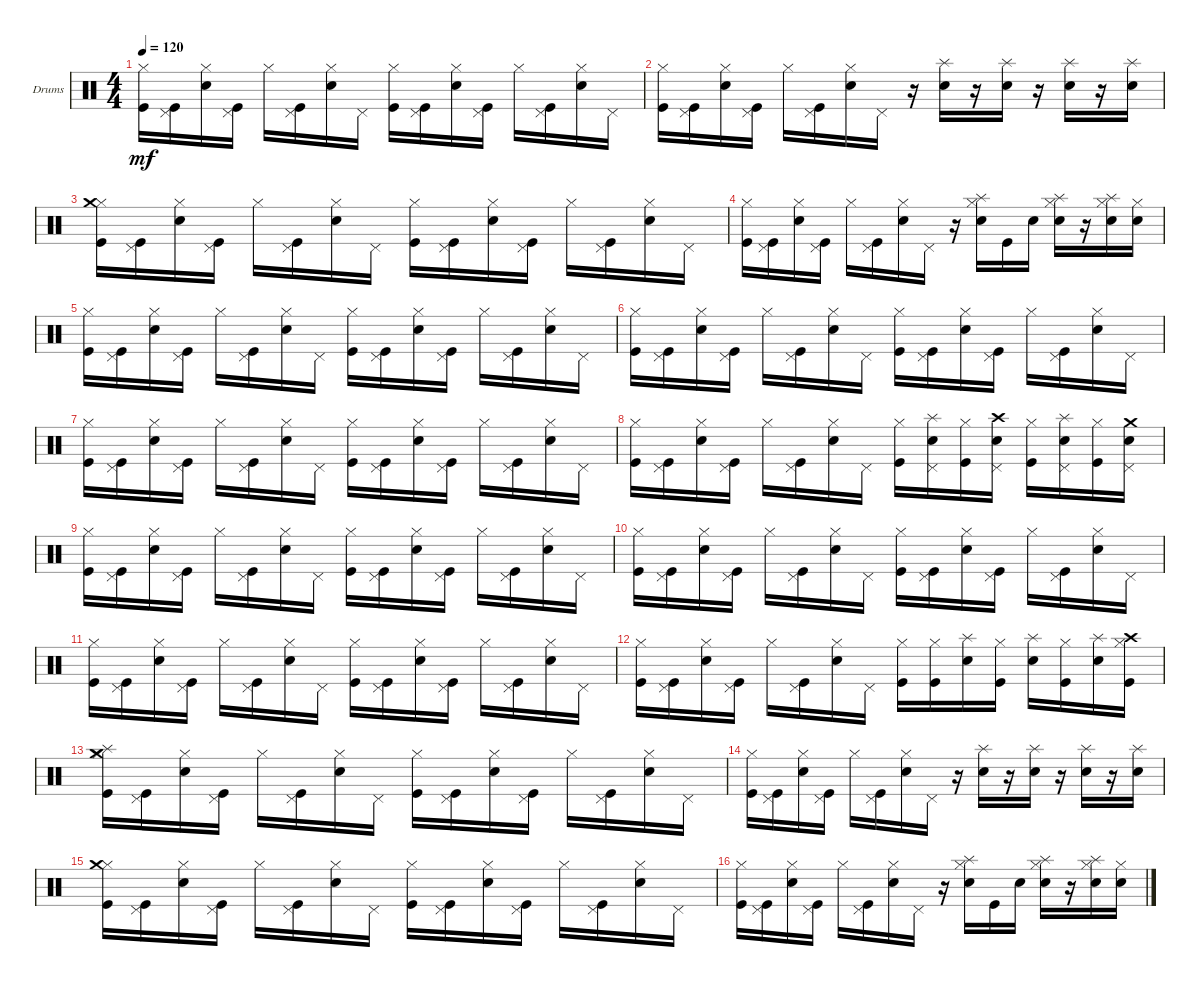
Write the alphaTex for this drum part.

\defaultSystemsLayout 4
\bracketExtendMode groupsimilarinstruments
\firstSystemTrackNameOrientation horizontal
\otherSystemsTrackNameOrientation horizontal
\track ("Drumkit" "Drums") {instrument percussion}
\staff {score}
\articulation defaults
\ts (4 4)
\tempo 120
\clef neutral
\scale
0.474178
\ks c
("Hi-Hat (closed)" "Kick (hit)").16{dy mf} ("Pedal Hi-Hat (hit)" "Kick (hit)").16 ("Hi-Hat (closed)" "Snare (hit) 2").16 ("Pedal Hi-Hat (hit)" "Kick (hit)").16 "Hi-Hat (closed)".16 ("Pedal Hi-Hat (hit)" "Kick (hit)").16 ("Hi-Hat (closed)" "Snare (hit) 2").16 "Pedal Hi-Hat (hit)".16 ("Kick (hit)" "Hi-Hat (closed)").16 ("Kick (hit)" "Pedal Hi-Hat (hit)").16 ("Snare (hit) 2" "Hi-Hat (closed)").16 ("Kick (hit)" "Pedal Hi-Hat (hit)").16 "Hi-Hat (closed)".16 ("Kick (hit)" "Pedal Hi-Hat (hit)").16 ("Snare (hit) 2" "Hi-Hat (closed)").16 "Pedal Hi-Hat (hit)".16 |
\scale
0.262911 ("Hi-Hat (closed)" "Kick (hit)").16 ("Pedal Hi-Hat (hit)" "Kick (hit)").16 ("Hi-Hat (closed)" "Snare (hit) 2").16 ("Pedal Hi-Hat (hit)" "Kick (hit)").16 "Hi-Hat (closed)".16 ("Pedal Hi-Hat (hit)" "Kick (hit)").16 ("Hi-Hat (closed)" "Snare (hit) 2").16 "Pedal Hi-Hat (hit)".16 r.16 ("Splash (hit)" "Snare (hit) 2").16 r.16 ("Splash (hit)" "Snare (hit) 2").16 r.16 ("Splash (hit)" "Snare (hit) 2").16 r.16 ("Splash (hit)" "Snare (hit) 2").16 |
\scale
0.262911 ("Hi-Hat (closed)" "Kick (hit)" "Crash medium (hit)").16 ("Pedal Hi-Hat (hit)" "Kick (hit)").16 ("Hi-Hat (closed)" "Snare (hit) 2").16 ("Pedal Hi-Hat (hit)" "Kick (hit)").16 "Hi-Hat (closed)".16 ("Pedal Hi-Hat (hit)" "Kick (hit)").16 ("Hi-Hat (closed)" "Snare (hit) 2").16 "Pedal Hi-Hat (hit)".16 ("Kick (hit)" "Hi-Hat (closed)").16 ("Kick (hit)" "Pedal Hi-Hat (hit)").16 ("Snare (hit) 2" "Hi-Hat (closed)").16 ("Kick (hit)" "Pedal Hi-Hat (hit)").16 "Hi-Hat (closed)".16 ("Kick (hit)" "Pedal Hi-Hat (hit)").16 ("Snare (hit) 2" "Hi-Hat (closed)").16 "Pedal Hi-Hat (hit)".16 |
\scale
0.333333 ("Hi-Hat (closed)" "Kick (hit)").16 ("Pedal Hi-Hat (hit)" "Kick (hit)").16 ("Hi-Hat (closed)" "Snare (hit) 2").16 ("Pedal Hi-Hat (hit)" "Kick (hit)").16 "Hi-Hat (closed)".16 ("Pedal Hi-Hat (hit)" "Kick (hit)").16 ("Hi-Hat (closed)" "Snare (hit) 2").16 "Pedal Hi-Hat (hit)".16 r.16 ("Splash (hit)" "Hi-Hat (closed)" "Snare (hit) 2").16 "Kick (hit)".16 "Snare (hit) 2".16 ("Splash (hit)" "Hi-Hat (closed)" "Snare (hit) 2").16 r.16 ("Splash (hit)" "Snare (hit) 2" "Hi-Hat (closed)").16 ("Hi-Hat (closed)" "Snare (hit) 2").16 |
\scale
0.333333 ("Hi-Hat (closed)" "Kick (hit)").16 ("Pedal Hi-Hat (hit)" "Kick (hit)").16 ("Snare (hit) 2" "Hi-Hat (closed)").16 ("Pedal Hi-Hat (hit)" "Kick (hit)").16 "Hi-Hat (closed)".16 ("Pedal Hi-Hat (hit)" "Kick (hit)").16 ("Hi-Hat (closed)" "Snare (hit) 2").16 "Pedal Hi-Hat (hit)".16 ("Hi-Hat (closed)" "Kick (hit)").16 ("Pedal Hi-Hat (hit)" "Kick (hit)").16 ("Snare (hit) 2" "Hi-Hat (closed)").16 ("Pedal Hi-Hat (hit)" "Kick (hit)").16 "Hi-Hat (closed)".16 ("Pedal Hi-Hat (hit)" "Kick (hit)").16 ("Hi-Hat (closed)" "Snare (hit) 2").16 "Pedal Hi-Hat (hit)".16 |
\scale
0.333333 ("Hi-Hat (closed)" "Kick (hit)").16 ("Pedal Hi-Hat (hit)" "Kick (hit)").16 ("Snare (hit) 2" "Hi-Hat (closed)").16 ("Pedal Hi-Hat (hit)" "Kick (hit)").16 "Hi-Hat (closed)".16 ("Pedal Hi-Hat (hit)" "Kick (hit)").16 ("Hi-Hat (closed)" "Snare (hit) 2").16 "Pedal Hi-Hat (hit)".16 ("Hi-Hat (closed)" "Kick (hit)").16 ("Pedal Hi-Hat (hit)" "Kick (hit)").16 ("Snare (hit) 2" "Hi-Hat (closed)").16 ("Pedal Hi-Hat (hit)" "Kick (hit)").16 "Hi-Hat (closed)".16 ("Pedal Hi-Hat (hit)" "Kick (hit)").16 ("Hi-Hat (closed)" "Snare (hit) 2").16 "Pedal Hi-Hat (hit)".16 |
\scale
0.333333 ("Hi-Hat (closed)" "Kick (hit)").16 ("Pedal Hi-Hat (hit)" "Kick (hit)").16 ("Snare (hit) 2" "Hi-Hat (closed)").16 ("Pedal Hi-Hat (hit)" "Kick (hit)").16 "Hi-Hat (closed)".16 ("Pedal Hi-Hat (hit)" "Kick (hit)").16 ("Hi-Hat (closed)" "Snare (hit) 2").16 "Pedal Hi-Hat (hit)".16 ("Hi-Hat (closed)" "Kick (hit)").16 ("Pedal Hi-Hat (hit)" "Kick (hit)").16 ("Snare (hit) 2" "Hi-Hat (closed)").16 ("Pedal Hi-Hat (hit)" "Kick (hit)").16 "Hi-Hat (closed)".16 ("Pedal Hi-Hat (hit)" "Kick (hit)").16 ("Hi-Hat (closed)" "Snare (hit) 2").16 "Pedal Hi-Hat (hit)".16 |
\scale
0.333333 ("Hi-Hat (closed)" "Kick (hit)").16 ("Pedal Hi-Hat (hit)" "Kick (hit)").16 ("Snare (hit) 2" "Hi-Hat (closed)").16 ("Pedal Hi-Hat (hit)" "Kick (hit)").16 "Hi-Hat (closed)".16 ("Pedal Hi-Hat (hit)" "Kick (hit)").16 ("Hi-Hat (closed)" "Snare (hit) 2").16 "Pedal Hi-Hat (hit)".16 ("Hi-Hat (closed)" "Kick (hit)").16 ("Pedal Hi-Hat (hit)" "Splash (hit)" "Snare (hit) 2").16 ("Kick (hit)" "Hi-Hat (closed)").16 ("Pedal Hi-Hat (hit)" "Snare (hit) 2" "Crash high (hit)").16 ("Hi-Hat (closed)" "Kick (hit)").16 ("Pedal Hi-Hat (hit)" "Snare (hit) 2" "Splash (hit)").16 ("Kick (hit)" "Hi-Hat (closed)").16 ("Snare (hit) 2" "Pedal Hi-Hat (hit)" "Crash medium (hit)").16 |
\scale
0.333333 ("Hi-Hat (closed)" "Kick (hit)").16 ("Pedal Hi-Hat (hit)" "Kick (hit)").16 ("Snare (hit) 2" "Hi-Hat (closed)").16 ("Pedal Hi-Hat (hit)" "Kick (hit)").16 "Hi-Hat (closed)".16 ("Pedal Hi-Hat (hit)" "Kick (hit)").16 ("Hi-Hat (closed)" "Snare (hit) 2").16 "Pedal Hi-Hat (hit)".16 ("Hi-Hat (closed)" "Kick (hit)").16 ("Pedal Hi-Hat (hit)" "Kick (hit)").16 ("Snare (hit) 2" "Hi-Hat (closed)").16 ("Pedal Hi-Hat (hit)" "Kick (hit)").16 "Hi-Hat (closed)".16 ("Pedal Hi-Hat (hit)" "Kick (hit)").16 ("Hi-Hat (closed)" "Snare (hit) 2").16 "Pedal Hi-Hat (hit)".16 |
\scale
0.333333 ("Hi-Hat (closed)" "Kick (hit)").16 ("Pedal Hi-Hat (hit)" "Kick (hit)").16 ("Snare (hit) 2" "Hi-Hat (closed)").16 ("Pedal Hi-Hat (hit)" "Kick (hit)").16 "Hi-Hat (closed)".16 ("Pedal Hi-Hat (hit)" "Kick (hit)").16 ("Hi-Hat (closed)" "Snare (hit) 2").16 "Pedal Hi-Hat (hit)".16 ("Hi-Hat (closed)" "Kick (hit)").16 ("Pedal Hi-Hat (hit)" "Kick (hit)").16 ("Snare (hit) 2" "Hi-Hat (closed)").16 ("Pedal Hi-Hat (hit)" "Kick (hit)").16 "Hi-Hat (closed)".16 ("Pedal Hi-Hat (hit)" "Kick (hit)").16 ("Hi-Hat (closed)" "Snare (hit) 2").16 "Pedal Hi-Hat (hit)".16 |
\scale
0.333333 ("Hi-Hat (closed)" "Kick (hit)").16 ("Pedal Hi-Hat (hit)" "Kick (hit)").16 ("Snare (hit) 2" "Hi-Hat (closed)").16 ("Pedal Hi-Hat (hit)" "Kick (hit)").16 "Hi-Hat (closed)".16 ("Pedal Hi-Hat (hit)" "Kick (hit)").16 ("Hi-Hat (closed)" "Snare (hit) 2").16 "Pedal Hi-Hat (hit)".16 ("Hi-Hat (closed)" "Kick (hit)").16 ("Pedal Hi-Hat (hit)" "Kick (hit)").16 ("Snare (hit) 2" "Hi-Hat (closed)").16 ("Pedal Hi-Hat (hit)" "Kick (hit)").16 "Hi-Hat (closed)".16 ("Pedal Hi-Hat (hit)" "Kick (hit)").16 ("Hi-Hat (closed)" "Snare (hit) 2").16 "Pedal Hi-Hat (hit)".16 |
\scale
0.333333 ("Hi-Hat (closed)" "Kick (hit)").16 ("Pedal Hi-Hat (hit)" "Kick (hit)").16 ("Snare (hit) 2" "Hi-Hat (closed)").16 ("Pedal Hi-Hat (hit)" "Kick (hit)").16 "Hi-Hat (closed)".16 ("Pedal Hi-Hat (hit)" "Kick (hit)").16 ("Hi-Hat (closed)" "Snare (hit) 2").16 "Pedal Hi-Hat (hit)".16 ("Hi-Hat (closed)" "Kick (hit)").16 ("Hi-Hat (closed)" "Kick (hit)").16 ("Splash (hit)" "Snare (hit) 2").16 ("Hi-Hat (closed)" "Kick (hit)").16 ("Splash (hit)" "Snare (hit) 2").16 ("Hi-Hat (closed)" "Kick (hit)").16 ("Splash (hit)" "Snare (hit) 2").16 ("Hi-Hat (closed)" "Crash high (hit)" "Kick (hit)").16 |
\scale
0.333333 ("Splash (hit)" "Crash medium (hit)" "Hi-Hat (closed)" "Kick (hit)").16 ("Pedal Hi-Hat (hit)" "Kick (hit)").16 ("Hi-Hat (closed)" "Snare (hit) 2").16 ("Pedal Hi-Hat (hit)" "Kick (hit)").16 "Hi-Hat (closed)".16 ("Pedal Hi-Hat (hit)" "Kick (hit)").16 ("Hi-Hat (closed)" "Snare (hit) 2").16 "Pedal Hi-Hat (hit)".16 ("Kick (hit)" "Hi-Hat (closed)").16 ("Kick (hit)" "Pedal Hi-Hat (hit)").16 ("Snare (hit) 2" "Hi-Hat (closed)").16 ("Kick (hit)" "Pedal Hi-Hat (hit)").16 "Hi-Hat (closed)".16 ("Kick (hit)" "Pedal Hi-Hat (hit)").16 ("Snare (hit) 2" "Hi-Hat (closed)").16 "Pedal Hi-Hat (hit)".16 |
\scale
0.333333 ("Hi-Hat (closed)" "Kick (hit)").16 ("Pedal Hi-Hat (hit)" "Kick (hit)").16 ("Hi-Hat (closed)" "Snare (hit) 2").16 ("Pedal Hi-Hat (hit)" "Kick (hit)").16 "Hi-Hat (closed)".16 ("Pedal Hi-Hat (hit)" "Kick (hit)").16 ("Hi-Hat (closed)" "Snare (hit) 2").16 "Pedal Hi-Hat (hit)".16 r.16 ("Splash (hit)" "Snare (hit) 2").16 r.16 ("Splash (hit)" "Snare (hit) 2").16 r.16 ("Splash (hit)" "Snare (hit) 2").16 r.16 ("Splash (hit)" "Snare (hit) 2").16 |
\scale
0.333333 ("Hi-Hat (closed)" "Kick (hit)" "Crash medium (hit)").16 ("Pedal Hi-Hat (hit)" "Kick (hit)").16 ("Hi-Hat (closed)" "Snare (hit) 2").16 ("Pedal Hi-Hat (hit)" "Kick (hit)").16 "Hi-Hat (closed)".16 ("Pedal Hi-Hat (hit)" "Kick (hit)").16 ("Hi-Hat (closed)" "Snare (hit) 2").16 "Pedal Hi-Hat (hit)".16 ("Kick (hit)" "Hi-Hat (closed)").16 ("Kick (hit)" "Pedal Hi-Hat (hit)").16 ("Snare (hit) 2" "Hi-Hat (closed)").16 ("Kick (hit)" "Pedal Hi-Hat (hit)").16 "Hi-Hat (closed)".16 ("Kick (hit)" "Pedal Hi-Hat (hit)").16 ("Snare (hit) 2" "Hi-Hat (closed)").16 "Pedal Hi-Hat (hit)".16 |
\scale
0.333333 ("Hi-Hat (closed)" "Kick (hit)").16 ("Pedal Hi-Hat (hit)" "Kick (hit)").16 ("Hi-Hat (closed)" "Snare (hit) 2").16 ("Pedal Hi-Hat (hit)" "Kick (hit)").16 "Hi-Hat (closed)".16 ("Pedal Hi-Hat (hit)" "Kick (hit)").16 ("Hi-Hat (closed)" "Snare (hit) 2").16 "Pedal Hi-Hat (hit)".16 r.16 ("Splash (hit)" "Hi-Hat (closed)" "Snare (hit) 2").16 "Kick (hit)".16 "Snare (hit) 2".16 ("Splash (hit)" "Hi-Hat (closed)" "Snare (hit) 2").16 r.16 ("Splash (hit)" "Snare (hit) 2" "Hi-Hat (closed)").16 ("Hi-Hat (closed)" "Snare (hit) 2").16
